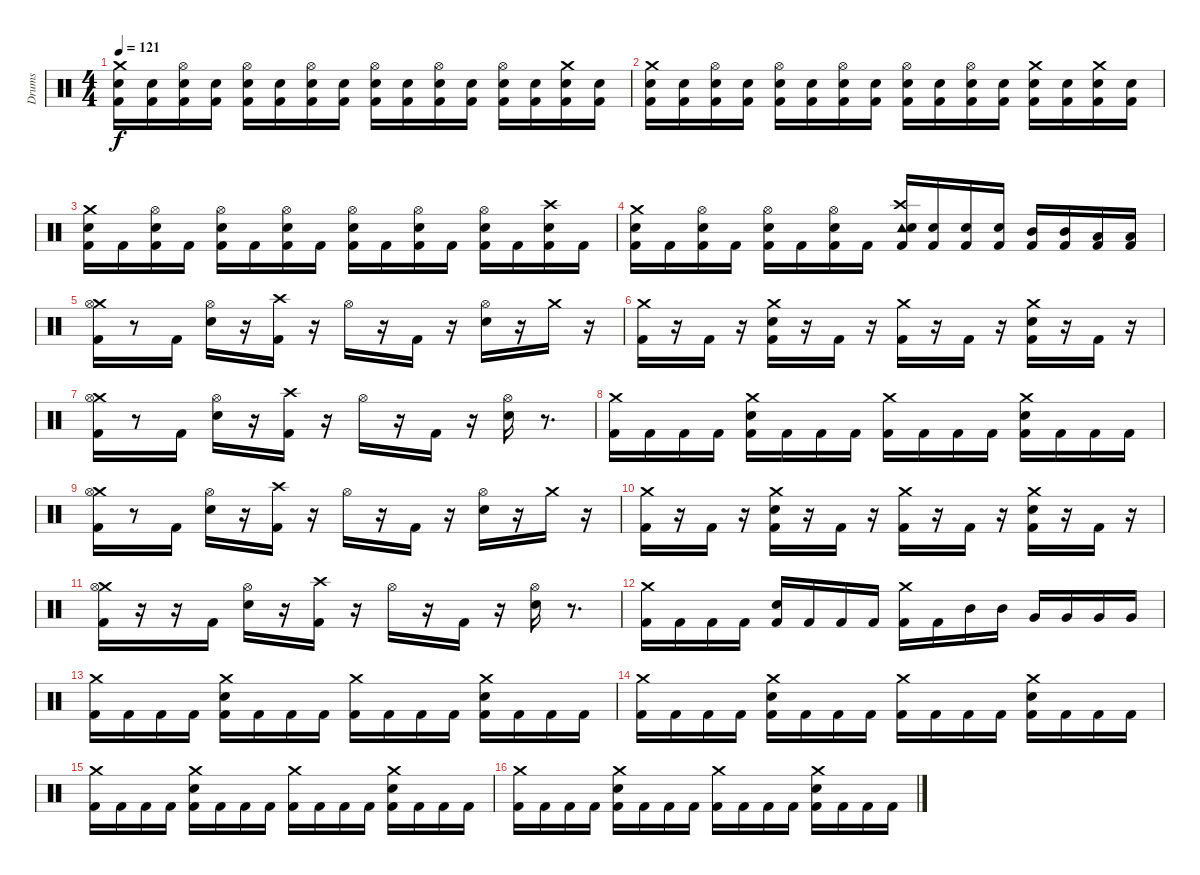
\track ("Drums" "Drums") {instrument percussion}
\staff {score}
\articulation defaults
\ts (4 4)
\tempo 121
\clef neutral
\ks c
("Crash medium (hit)" "Snare (hit) 2" "Kick (hit) 2").16{dy f} ("Snare (hit) 2" "Kick (hit) 2").16 ("Hi-Hat (open)" "Snare (hit) 2" "Kick (hit) 2").16 ("Snare (hit) 2" "Kick (hit) 2").16 ("Hi-Hat (open)" "Snare (hit) 2" "Kick (hit) 2").16 ("Snare (hit) 2" "Kick (hit) 2").16 ("Hi-Hat (open)" "Snare (hit) 2" "Kick (hit) 2").16 ("Snare (hit) 2" "Kick (hit) 2").16 ("Hi-Hat (open)" "Snare (hit) 2" "Kick (hit) 2").16 ("Snare (hit) 2" "Kick (hit) 2").16 ("Hi-Hat (open)" "Snare (hit) 2" "Kick (hit) 2").16 ("Snare (hit) 2" "Kick (hit) 2").16 ("Hi-Hat (open)" "Snare (hit) 2" "Kick (hit) 2").16 ("Snare (hit) 2" "Kick (hit) 2").16 ("Crash medium (hit)" "Snare (hit) 2" "Kick (hit) 2").16 ("Snare (hit) 2" "Kick (hit) 2").16 |
("Crash medium (hit)" "Snare (hit) 2" "Kick (hit) 2").16 ("Snare (hit) 2" "Kick (hit) 2").16 ("Hi-Hat (open)" "Snare (hit) 2" "Kick (hit) 2").16 ("Snare (hit) 2" "Kick (hit) 2").16 ("Hi-Hat (open)" "Snare (hit) 2" "Kick (hit) 2").16 ("Snare (hit) 2" "Kick (hit) 2").16 ("Hi-Hat (open)" "Snare (hit) 2" "Kick (hit) 2").16 ("Snare (hit) 2" "Kick (hit) 2").16 ("Hi-Hat (open)" "Snare (hit) 2" "Kick (hit) 2").16 ("Snare (hit) 2" "Kick (hit) 2").16 ("Hi-Hat (open)" "Snare (hit) 2" "Kick (hit) 2").16 ("Snare (hit) 2" "Kick (hit) 2").16 ("Crash medium (hit)" "Snare (hit) 2" "Kick (hit) 2").16 ("Snare (hit) 2" "Kick (hit) 2").16 ("Crash medium (hit)" "Snare (hit) 2" "Kick (hit) 2").16 ("Snare (hit) 2" "Kick (hit) 2").16 |
("Crash medium (hit)" "Snare (hit) 2" "Kick (hit) 2").16 "Kick (hit) 2".16 ("Hi-Hat (open)" "Snare (hit) 2" "Kick (hit) 2").16 "Kick (hit) 2".16 ("Hi-Hat (open)" "Snare (hit) 2" "Kick (hit) 2").16 "Kick (hit) 2".16 ("Hi-Hat (open)" "Snare (hit) 2" "Kick (hit) 2").16 "Kick (hit) 2".16 ("Hi-Hat (open)" "Snare (hit) 2" "Kick (hit) 2").16 "Kick (hit) 2".16 ("Hi-Hat (open)" "Snare (hit) 2" "Kick (hit) 2").16 "Kick (hit) 2".16 ("Hi-Hat (open)" "Snare (hit) 2" "Kick (hit) 2").16 "Kick (hit) 2".16 ("Crash high (hit)" "Snare (hit) 2" "Kick (hit) 2").16 "Kick (hit) 2".16 |
("Crash medium (hit)" "Snare (hit) 2" "Kick (hit) 2").16 "Kick (hit) 2".16 ("Hi-Hat (open)" "Snare (hit) 2" "Kick (hit) 2").16 "Kick (hit) 2".16 ("Hi-Hat (open)" "Snare (hit) 2" "Kick (hit) 2").16 "Kick (hit) 2".16 ("Hi-Hat (open)" "Snare (hit) 2" "Kick (hit) 2").16 "Kick (hit) 2".16 ("Crash high (hit)" "Tambourine (hit)" "Snare (hit) 2" "Kick (hit) 2").16 ("Electric Snare (hit)" "Kick (hit) 2").16 ("Electric Snare (hit)" "Kick (hit) 2").16 ("Electric Snare (hit)" "Kick (hit) 2").16 ("Mid Tom (hit)" "Kick (hit) 2").16 ("Mid Tom (hit)" "Kick (hit) 2").16 ("Low Tom (hit)" "Kick (hit) 2").16 ("Low Tom (hit)" "Kick (hit) 2").16 |
("Crash medium (hit)" "Hi-Hat (open)" "Kick (hit) 2").16 r.8 "Kick (hit) 2".16 ("Hi-Hat (open)" "Electric Snare (hit)").16 r.16 ("Crash high (hit)" "Kick (hit) 2").16 r.16 "Hi-Hat (open)".16 r.16 "Kick (hit) 2".16 r.16 ("Hi-Hat (open)" "Electric Snare (hit)").16 r.16 "Crash medium (hit)".16 r.16 |
("Crash medium (hit)" "Kick (hit) 2").16 r.16 "Kick (hit) 2".16 r.16 ("Crash medium (hit)" "Electric Snare (hit)" "Kick (hit) 2").16 r.16 "Kick (hit) 2".16 r.16 ("Crash medium (hit)" "Kick (hit) 2").16 r.16 "Kick (hit) 2".16 r.16 ("Crash medium (hit)" "Electric Snare (hit)" "Kick (hit) 2").16 r.16 "Kick (hit) 2".16 r.16 |
("Crash medium (hit)" "Hi-Hat (open)" "Kick (hit) 2").16 r.8 "Kick (hit) 2".16 ("Hi-Hat (open)" "Electric Snare (hit)").16 r.16 ("Crash high (hit)" "Kick (hit) 2").16 r.16 "Hi-Hat (open)".16 r.16 "Kick (hit) 2".16 r.16 ("Hi-Hat (open)" "Electric Snare (hit)").16 r.8{d} |
("Crash medium (hit)" "Kick (hit) 2").16 "Kick (hit) 2".16 "Kick (hit) 2".16 "Kick (hit) 2".16 ("Crash medium (hit)" "Electric Snare (hit)" "Kick (hit) 2").16 "Kick (hit) 2".16 "Kick (hit) 2".16 "Kick (hit) 2".16 ("Crash medium (hit)" "Kick (hit) 2").16 "Kick (hit) 2".16 "Kick (hit) 2".16 "Kick (hit) 2".16 ("Crash medium (hit)" "Electric Snare (hit)" "Kick (hit) 2").16 "Kick (hit) 2".16 "Kick (hit) 2".16 "Kick (hit) 2".16 |
("Crash medium (hit)" "Hi-Hat (open)" "Kick (hit) 2").16 r.8 "Kick (hit) 2".16 ("Hi-Hat (open)" "Electric Snare (hit)").16 r.16 ("Crash high (hit)" "Kick (hit) 2").16 r.16 "Hi-Hat (open)".16 r.16 "Kick (hit) 2".16 r.16 ("Hi-Hat (open)" "Electric Snare (hit)").16 r.16 "Crash medium (hit)".16 r.16 |
("Crash medium (hit)" "Kick (hit) 2").16 r.16 "Kick (hit) 2".16 r.16 ("Crash medium (hit)" "Electric Snare (hit)" "Kick (hit) 2").16 r.16 "Kick (hit) 2".16 r.16 ("Crash medium (hit)" "Kick (hit) 2").16 r.16 "Kick (hit) 2".16 r.16 ("Crash medium (hit)" "Electric Snare (hit)" "Kick (hit) 2").16 r.16 "Kick (hit) 2".16 r.16 |
("Crash medium (hit)" "Hi-Hat (open)" "Kick (hit) 2").16 r.16 r.16 "Kick (hit) 2".16 ("Hi-Hat (open)" "Electric Snare (hit)").16 r.16 ("Crash high (hit)" "Kick (hit) 2").16 r.16 "Hi-Hat (open)".16 r.16 "Kick (hit) 2".16 r.16 ("Hi-Hat (open)" "Electric Snare (hit)").16 r.8{d} |
("Crash medium (hit)" "Kick (hit) 2").16 "Kick (hit) 2".16 "Kick (hit) 2".16 "Kick (hit) 2".16 ("Electric Snare (hit)" "Kick (hit) 2").16 "Kick (hit) 2".16 "Kick (hit) 2".16 "Kick (hit) 2".16 ("Crash medium (hit)" "Kick (hit) 2").16 "Kick (hit) 2".16 "Mid Tom (hit)".16 "Mid Tom (hit)".16 "Very Low Tom (hit)".16 "Very Low Tom (hit)".16 "Very Low Tom (hit)".16 "Very Low Tom (hit)".16 |
("Crash medium (hit)" "Kick (hit) 2").16 "Kick (hit) 2".16 "Kick (hit) 2".16 "Kick (hit) 2".16 ("Crash medium (hit)" "Electric Snare (hit)" "Kick (hit) 2").16 "Kick (hit) 2".16 "Kick (hit) 2".16 "Kick (hit) 2".16 ("Crash medium (hit)" "Kick (hit) 2").16 "Kick (hit) 2".16 "Kick (hit) 2".16 "Kick (hit) 2".16 ("Crash medium (hit)" "Electric Snare (hit)" "Kick (hit) 2").16 "Kick (hit) 2".16 "Kick (hit) 2".16 "Kick (hit) 2".16 |
("Crash medium (hit)" "Kick (hit) 2").16 "Kick (hit) 2".16 "Kick (hit) 2".16 "Kick (hit) 2".16 ("Crash medium (hit)" "Electric Snare (hit)" "Kick (hit) 2").16 "Kick (hit) 2".16 "Kick (hit) 2".16 "Kick (hit) 2".16 ("Crash medium (hit)" "Kick (hit) 2").16 "Kick (hit) 2".16 "Kick (hit) 2".16 "Kick (hit) 2".16 ("Crash medium (hit)" "Electric Snare (hit)" "Kick (hit) 2").16 "Kick (hit) 2".16 "Kick (hit) 2".16 "Kick (hit) 2".16 |
("Crash medium (hit)" "Kick (hit) 2").16 "Kick (hit) 2".16 "Kick (hit) 2".16 "Kick (hit) 2".16 ("Crash medium (hit)" "Electric Snare (hit)" "Kick (hit) 2").16 "Kick (hit) 2".16 "Kick (hit) 2".16 "Kick (hit) 2".16 ("Crash medium (hit)" "Kick (hit) 2").16 "Kick (hit) 2".16 "Kick (hit) 2".16 "Kick (hit) 2".16 ("Crash medium (hit)" "Electric Snare (hit)" "Kick (hit) 2").16 "Kick (hit) 2".16 "Kick (hit) 2".16 "Kick (hit) 2".16 |
("Crash medium (hit)" "Kick (hit) 2").16 "Kick (hit) 2".16 "Kick (hit) 2".16 "Kick (hit) 2".16 ("Crash medium (hit)" "Electric Snare (hit)" "Kick (hit) 2").16 "Kick (hit) 2".16 "Kick (hit) 2".16 "Kick (hit) 2".16 ("Crash medium (hit)" "Kick (hit) 2").16 "Kick (hit) 2".16 "Kick (hit) 2".16 "Kick (hit) 2".16 ("Crash medium (hit)" "Electric Snare (hit)" "Kick (hit) 2").16 "Kick (hit) 2".16 "Kick (hit) 2".16 "Kick (hit) 2".16
